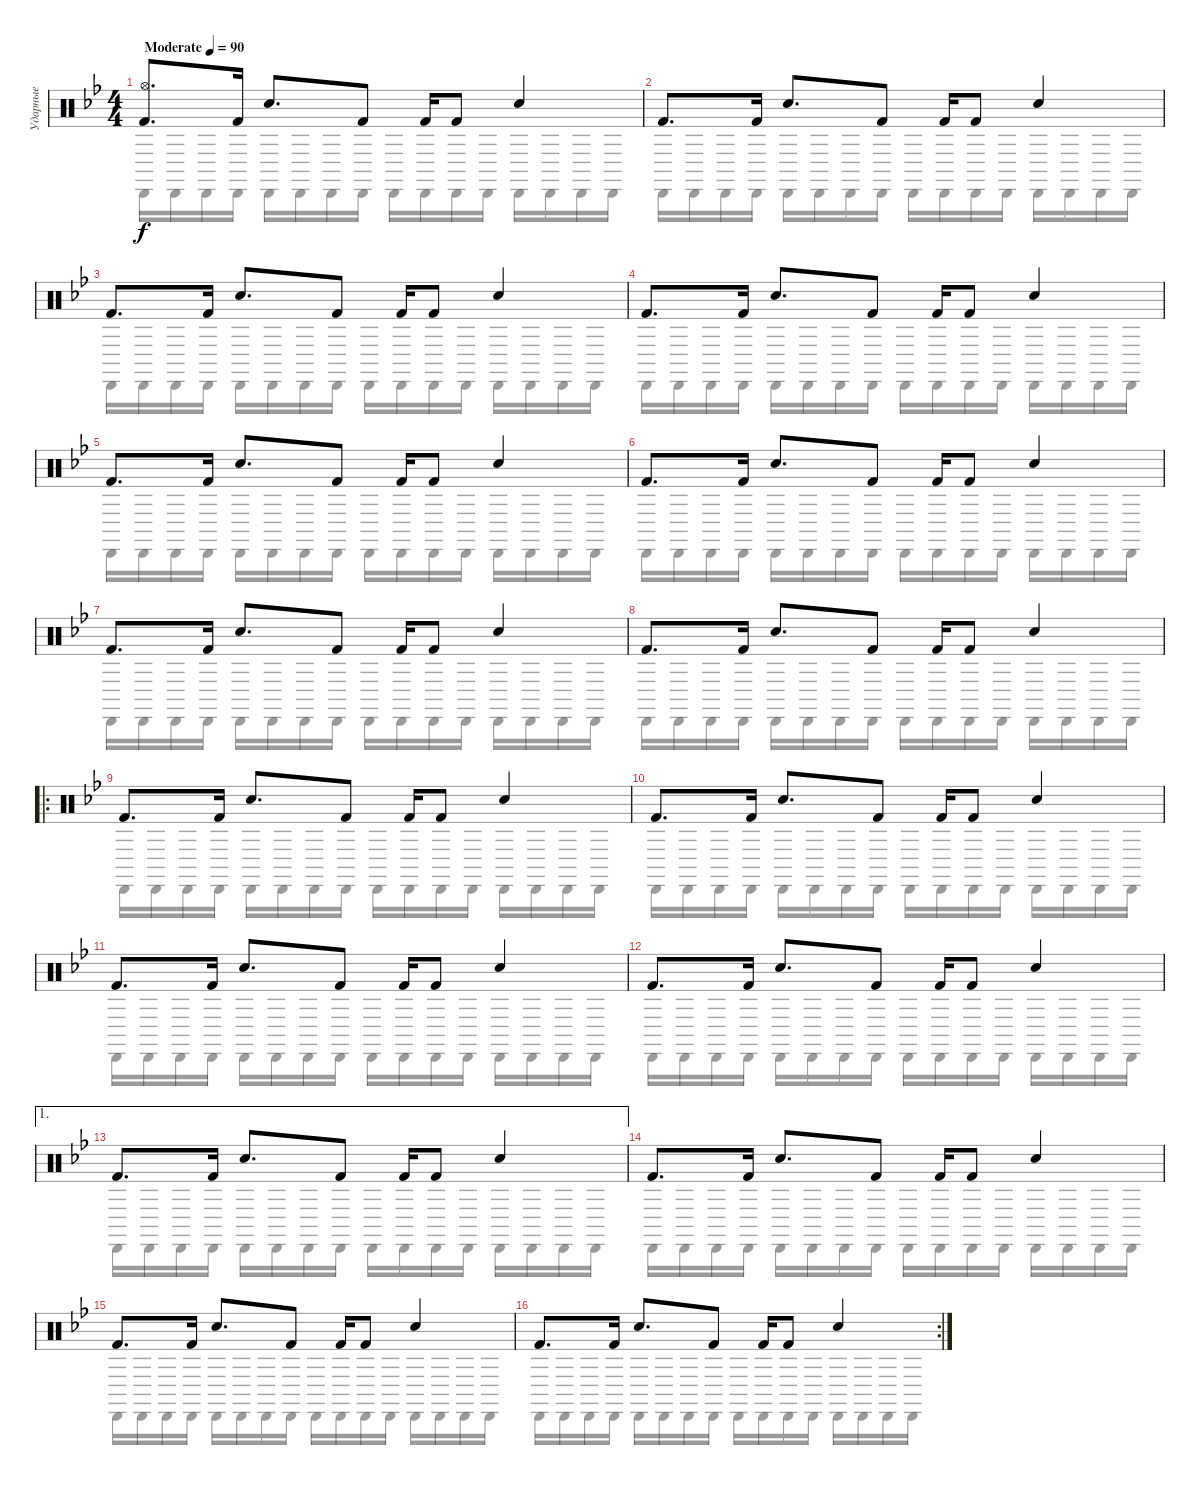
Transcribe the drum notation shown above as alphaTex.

\track ("Ударные" "Ударные") {instrument percussion}
\staff {score}
\articulation defaults
\voice
\ts (4 4)
\tempo (90 "Moderate")
\clef neutral
\ks bb
("Kick (hit) 2" "Hi-Hat (open)").8{d dy f} "Kick (hit) 2".16 "Hand Clap (hit)".8{d} "Kick (hit) 2".8 "Kick (hit) 2".16 "Kick (hit) 2".8 "Hand Clap (hit)".4 |
"Kick (hit) 2".8{d} "Kick (hit) 2".16 "Hand Clap (hit)".8{d} "Kick (hit) 2".8 "Kick (hit) 2".16 "Kick (hit) 2".8 "Hand Clap (hit)".4 |
"Kick (hit) 2".8{d} "Kick (hit) 2".16 "Hand Clap (hit)".8{d} "Kick (hit) 2".8 "Kick (hit) 2".16 "Kick (hit) 2".8 "Hand Clap (hit)".4 |
"Kick (hit) 2".8{d} "Kick (hit) 2".16 "Hand Clap (hit)".8{d} "Kick (hit) 2".8 "Kick (hit) 2".16 "Kick (hit) 2".8 "Hand Clap (hit)".4 |
"Kick (hit) 2".8{d} "Kick (hit) 2".16 "Hand Clap (hit)".8{d} "Kick (hit) 2".8 "Kick (hit) 2".16 "Kick (hit) 2".8 "Hand Clap (hit)".4 |
"Kick (hit) 2".8{d} "Kick (hit) 2".16 "Hand Clap (hit)".8{d} "Kick (hit) 2".8 "Kick (hit) 2".16 "Kick (hit) 2".8 "Hand Clap (hit)".4 |
"Kick (hit) 2".8{d} "Kick (hit) 2".16 "Hand Clap (hit)".8{d} "Kick (hit) 2".8 "Kick (hit) 2".16 "Kick (hit) 2".8 "Hand Clap (hit)".4 |
"Kick (hit) 2".8{d} "Kick (hit) 2".16 "Hand Clap (hit)".8{d} "Kick (hit) 2".8 "Kick (hit) 2".16 "Kick (hit) 2".8 "Hand Clap (hit)".4 |
\ro "Kick (hit) 2".8{d} "Kick (hit) 2".16 "Hand Clap (hit)".8{d} "Kick (hit) 2".8 "Kick (hit) 2".16 "Kick (hit) 2".8 "Hand Clap (hit)".4
|
"Kick (hit) 2".8{d} "Kick (hit) 2".16 "Hand Clap (hit)".8{d} "Kick (hit) 2".8 "Kick (hit) 2".16 "Kick (hit) 2".8 "Hand Clap (hit)".4 |
"Kick (hit) 2".8{d} "Kick (hit) 2".16 "Hand Clap (hit)".8{d} "Kick (hit) 2".8 "Kick (hit) 2".16 "Kick (hit) 2".8 "Hand Clap (hit)".4 |
"Kick (hit) 2".8{d} "Kick (hit) 2".16 "Hand Clap (hit)".8{d} "Kick (hit) 2".8 "Kick (hit) 2".16 "Kick (hit) 2".8 "Hand Clap (hit)".4 |
\ae 1 "Kick (hit) 2".8{d} "Kick (hit) 2".16 "Hand Clap (hit)".8{d} "Kick (hit) 2".8 "Kick (hit) 2".16 "Kick (hit) 2".8 "Hand Clap (hit)".4
|
"Kick (hit) 2".8{d} "Kick (hit) 2".16 "Hand Clap (hit)".8{d} "Kick (hit) 2".8 "Kick (hit) 2".16 "Kick (hit) 2".8 "Hand Clap (hit)".4 |
"Kick (hit) 2".8{d} "Kick (hit) 2".16 "Hand Clap (hit)".8{d} "Kick (hit) 2".8 "Kick (hit) 2".16 "Kick (hit) 2".8 "Hand Clap (hit)".4 |
\rc 2 "Kick (hit) 2".8{d} "Kick (hit) 2".16 "Hand Clap (hit)".8{d} "Kick (hit) 2".8 "Kick (hit) 2".16 "Kick (hit) 2".8 "Hand Clap (hit)".4
\voice
\clef neutral
\ottava regular
\simile none
\ks bb "Cabasa (hit)".16{dy f} "Cabasa (hit)".16 "Cabasa (hit)".16 "Cabasa (hit)".16 "Cabasa (hit)".16 "Cabasa (hit)".16 "Cabasa (hit)".16 "Cabasa (hit)".16 "Cabasa (hit)".16 "Cabasa (hit)".16 "Cabasa (hit)".16 "Cabasa (hit)".16 "Cabasa (hit)".16 "Cabasa (hit)".16 "Cabasa (hit)".16 "Cabasa (hit)".16
|
"Cabasa (hit)".16 "Cabasa (hit)".16 "Cabasa (hit)".16 "Cabasa (hit)".16 "Cabasa (hit)".16 "Cabasa (hit)".16 "Cabasa (hit)".16 "Cabasa (hit)".16 "Cabasa (hit)".16 "Cabasa (hit)".16 "Cabasa (hit)".16 "Cabasa (hit)".16 "Cabasa (hit)".16 "Cabasa (hit)".16 "Cabasa (hit)".16 "Cabasa (hit)".16 |
"Cabasa (hit)".16 "Cabasa (hit)".16 "Cabasa (hit)".16 "Cabasa (hit)".16 "Cabasa (hit)".16 "Cabasa (hit)".16 "Cabasa (hit)".16 "Cabasa (hit)".16 "Cabasa (hit)".16 "Cabasa (hit)".16 "Cabasa (hit)".16 "Cabasa (hit)".16 "Cabasa (hit)".16 "Cabasa (hit)".16 "Cabasa (hit)".16 "Cabasa (hit)".16 |
"Cabasa (hit)".16 "Cabasa (hit)".16 "Cabasa (hit)".16 "Cabasa (hit)".16 "Cabasa (hit)".16 "Cabasa (hit)".16 "Cabasa (hit)".16 "Cabasa (hit)".16 "Cabasa (hit)".16 "Cabasa (hit)".16 "Cabasa (hit)".16 "Cabasa (hit)".16 "Cabasa (hit)".16 "Cabasa (hit)".16 "Cabasa (hit)".16 "Cabasa (hit)".16 |
"Cabasa (hit)".16 "Cabasa (hit)".16 "Cabasa (hit)".16 "Cabasa (hit)".16 "Cabasa (hit)".16 "Cabasa (hit)".16 "Cabasa (hit)".16 "Cabasa (hit)".16 "Cabasa (hit)".16 "Cabasa (hit)".16 "Cabasa (hit)".16 "Cabasa (hit)".16 "Cabasa (hit)".16 "Cabasa (hit)".16 "Cabasa (hit)".16 "Cabasa (hit)".16 |
"Cabasa (hit)".16 "Cabasa (hit)".16 "Cabasa (hit)".16 "Cabasa (hit)".16 "Cabasa (hit)".16 "Cabasa (hit)".16 "Cabasa (hit)".16 "Cabasa (hit)".16 "Cabasa (hit)".16 "Cabasa (hit)".16 "Cabasa (hit)".16 "Cabasa (hit)".16 "Cabasa (hit)".16 "Cabasa (hit)".16 "Cabasa (hit)".16 "Cabasa (hit)".16 |
"Cabasa (hit)".16 "Cabasa (hit)".16 "Cabasa (hit)".16 "Cabasa (hit)".16 "Cabasa (hit)".16 "Cabasa (hit)".16 "Cabasa (hit)".16 "Cabasa (hit)".16 "Cabasa (hit)".16 "Cabasa (hit)".16 "Cabasa (hit)".16 "Cabasa (hit)".16 "Cabasa (hit)".16 "Cabasa (hit)".16 "Cabasa (hit)".16 "Cabasa (hit)".16 |
"Cabasa (hit)".16 "Cabasa (hit)".16 "Cabasa (hit)".16 "Cabasa (hit)".16 "Cabasa (hit)".16 "Cabasa (hit)".16 "Cabasa (hit)".16 "Cabasa (hit)".16 "Cabasa (hit)".16 "Cabasa (hit)".16 "Cabasa (hit)".16 "Cabasa (hit)".16 "Cabasa (hit)".16 "Cabasa (hit)".16 "Cabasa (hit)".16 "Cabasa (hit)".16 |
"Cabasa (hit)".16 "Cabasa (hit)".16 "Cabasa (hit)".16 "Cabasa (hit)".16 "Cabasa (hit)".16 "Cabasa (hit)".16 "Cabasa (hit)".16 "Cabasa (hit)".16 "Cabasa (hit)".16 "Cabasa (hit)".16 "Cabasa (hit)".16 "Cabasa (hit)".16 "Cabasa (hit)".16 "Cabasa (hit)".16 "Cabasa (hit)".16 "Cabasa (hit)".16 |
"Cabasa (hit)".16 "Cabasa (hit)".16 "Cabasa (hit)".16 "Cabasa (hit)".16 "Cabasa (hit)".16 "Cabasa (hit)".16 "Cabasa (hit)".16 "Cabasa (hit)".16 "Cabasa (hit)".16 "Cabasa (hit)".16 "Cabasa (hit)".16 "Cabasa (hit)".16 "Cabasa (hit)".16 "Cabasa (hit)".16 "Cabasa (hit)".16 "Cabasa (hit)".16 |
"Cabasa (hit)".16 "Cabasa (hit)".16 "Cabasa (hit)".16 "Cabasa (hit)".16 "Cabasa (hit)".16 "Cabasa (hit)".16 "Cabasa (hit)".16 "Cabasa (hit)".16 "Cabasa (hit)".16 "Cabasa (hit)".16 "Cabasa (hit)".16 "Cabasa (hit)".16 "Cabasa (hit)".16 "Cabasa (hit)".16 "Cabasa (hit)".16 "Cabasa (hit)".16 |
"Cabasa (hit)".16 "Cabasa (hit)".16 "Cabasa (hit)".16 "Cabasa (hit)".16 "Cabasa (hit)".16 "Cabasa (hit)".16 "Cabasa (hit)".16 "Cabasa (hit)".16 "Cabasa (hit)".16 "Cabasa (hit)".16 "Cabasa (hit)".16 "Cabasa (hit)".16 "Cabasa (hit)".16 "Cabasa (hit)".16 "Cabasa (hit)".16 "Cabasa (hit)".16 |
"Cabasa (hit)".16 "Cabasa (hit)".16 "Cabasa (hit)".16 "Cabasa (hit)".16 "Cabasa (hit)".16 "Cabasa (hit)".16 "Cabasa (hit)".16 "Cabasa (hit)".16 "Cabasa (hit)".16 "Cabasa (hit)".16 "Cabasa (hit)".16 "Cabasa (hit)".16 "Cabasa (hit)".16 "Cabasa (hit)".16 "Cabasa (hit)".16 "Cabasa (hit)".16 |
"Cabasa (hit)".16 "Cabasa (hit)".16 "Cabasa (hit)".16 "Cabasa (hit)".16 "Cabasa (hit)".16 "Cabasa (hit)".16 "Cabasa (hit)".16 "Cabasa (hit)".16 "Cabasa (hit)".16 "Cabasa (hit)".16 "Cabasa (hit)".16 "Cabasa (hit)".16 "Cabasa (hit)".16 "Cabasa (hit)".16 "Cabasa (hit)".16 "Cabasa (hit)".16 |
"Cabasa (hit)".16 "Cabasa (hit)".16 "Cabasa (hit)".16 "Cabasa (hit)".16 "Cabasa (hit)".16 "Cabasa (hit)".16 "Cabasa (hit)".16 "Cabasa (hit)".16 "Cabasa (hit)".16 "Cabasa (hit)".16 "Cabasa (hit)".16 "Cabasa (hit)".16 "Cabasa (hit)".16 "Cabasa (hit)".16 "Cabasa (hit)".16 "Cabasa (hit)".16 |
"Cabasa (hit)".16 "Cabasa (hit)".16 "Cabasa (hit)".16 "Cabasa (hit)".16 "Cabasa (hit)".16 "Cabasa (hit)".16 "Cabasa (hit)".16 "Cabasa (hit)".16 "Cabasa (hit)".16 "Cabasa (hit)".16 "Cabasa (hit)".16 "Cabasa (hit)".16 "Cabasa (hit)".16 "Cabasa (hit)".16 "Cabasa (hit)".16 "Cabasa (hit)".16
